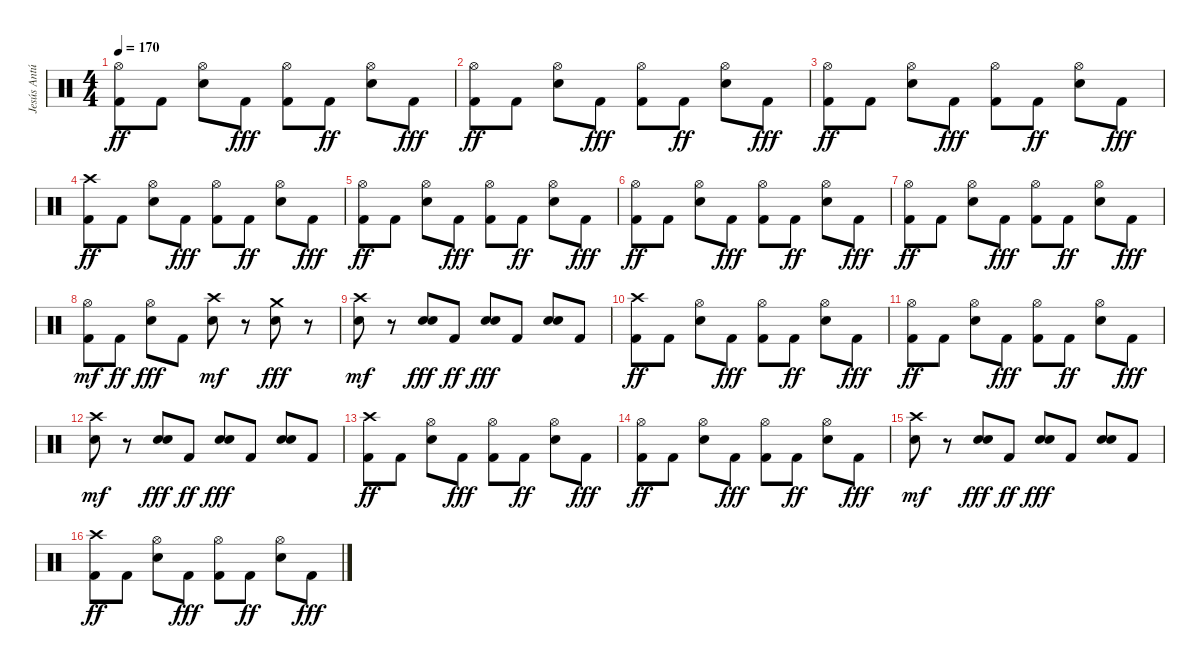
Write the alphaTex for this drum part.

\track ("Jesús Antúnez (Bateria)" "Jesús Antú") {instrument percussion}
\staff {score}
\articulation defaults
\ts (4 4)
\tempo 170
\clef neutral
\ks c
("Kick (hit) 2" "Hi-Hat (open)").8{dy ff} "Kick (hit) 2".8 ("Electric Snare (hit)" "Hi-Hat (open)").8 "Kick (hit) 2".8{dy fff} ("Kick (hit) 2" "Hi-Hat (open)").8 "Kick (hit) 2".8{dy ff} ("Electric Snare (hit)" "Hi-Hat (open)").8 "Kick (hit) 2".8{dy fff} |
("Kick (hit) 2" "Hi-Hat (open)").8{dy ff} "Kick (hit) 2".8 ("Electric Snare (hit)" "Hi-Hat (open)").8 "Kick (hit) 2".8{dy fff} ("Kick (hit) 2" "Hi-Hat (open)").8 "Kick (hit) 2".8{dy ff} ("Electric Snare (hit)" "Hi-Hat (open)").8 "Kick (hit) 2".8{dy fff} |
("Kick (hit) 2" "Hi-Hat (open)").8{dy ff} "Kick (hit) 2".8 ("Electric Snare (hit)" "Hi-Hat (open)").8 "Kick (hit) 2".8{dy fff} ("Kick (hit) 2" "Hi-Hat (open)").8 "Kick (hit) 2".8{dy ff} ("Electric Snare (hit)" "Hi-Hat (open)").8 "Kick (hit) 2".8{dy fff} |
("Kick (hit) 2" "Crash high (hit)").8{dy ff} "Kick (hit) 2".8 ("Electric Snare (hit)" "Hi-Hat (open)").8 "Kick (hit) 2".8{dy fff} ("Kick (hit) 2" "Hi-Hat (open)").8 "Kick (hit) 2".8{dy ff} ("Electric Snare (hit)" "Hi-Hat (open)").8 "Kick (hit) 2".8{dy fff} |
("Kick (hit) 2" "Hi-Hat (open)").8{dy ff} "Kick (hit) 2".8 ("Electric Snare (hit)" "Hi-Hat (open)").8 "Kick (hit) 2".8{dy fff} ("Kick (hit) 2" "Hi-Hat (open)").8 "Kick (hit) 2".8{dy ff} ("Electric Snare (hit)" "Hi-Hat (open)").8 "Kick (hit) 2".8{dy fff} |
("Kick (hit) 2" "Hi-Hat (open)").8{dy ff} "Kick (hit) 2".8 ("Electric Snare (hit)" "Hi-Hat (open)").8 "Kick (hit) 2".8{dy fff} ("Kick (hit) 2" "Hi-Hat (open)").8 "Kick (hit) 2".8{dy ff} ("Electric Snare (hit)" "Hi-Hat (open)").8 "Kick (hit) 2".8{dy fff} |
("Kick (hit) 2" "Hi-Hat (open)").8{dy ff} "Kick (hit) 2".8 ("Electric Snare (hit)" "Hi-Hat (open)").8 "Kick (hit) 2".8{dy fff} ("Kick (hit) 2" "Hi-Hat (open)").8 "Kick (hit) 2".8{dy ff} ("Electric Snare (hit)" "Hi-Hat (open)").8 "Kick (hit) 2".8{dy fff} |
("Kick (hit) 2" "Hi-Hat (open)").8{dy mf} "Kick (hit) 2".8{dy ff} ("Electric Snare (hit)" "Hi-Hat (open)").8{dy fff} "Kick (hit) 2".8 ("Electric Snare (hit)" "Crash high (hit)").8{dy mf} r.8 ("Electric Snare (hit)" "Crash medium (hit)").8{dy fff} r.8 |
("Electric Snare (hit)" "Crash high (hit)").8{dy mf} r.8 ("Electric Snare (hit)" "Electric Snare (hit)").8{dy fff} "Kick (hit) 2".8{dy ff} ("Electric Snare (hit)" "Electric Snare (hit)").8{dy fff} "Kick (hit) 2".8 ("Electric Snare (hit)" "Electric Snare (hit)").8 "Kick (hit) 2".8 |
("Kick (hit) 2" "Crash high (hit)").8{dy ff} "Kick (hit) 2".8 ("Electric Snare (hit)" "Hi-Hat (open)").8 "Kick (hit) 2".8{dy fff} ("Kick (hit) 2" "Hi-Hat (open)").8 "Kick (hit) 2".8{dy ff} ("Electric Snare (hit)" "Hi-Hat (open)").8 "Kick (hit) 2".8{dy fff} |
("Kick (hit) 2" "Hi-Hat (open)").8{dy ff} "Kick (hit) 2".8 ("Electric Snare (hit)" "Hi-Hat (open)").8 "Kick (hit) 2".8{dy fff} ("Kick (hit) 2" "Hi-Hat (open)").8 "Kick (hit) 2".8{dy ff} ("Electric Snare (hit)" "Hi-Hat (open)").8 "Kick (hit) 2".8{dy fff} |
("Electric Snare (hit)" "Crash high (hit)").8{dy mf} r.8 ("Electric Snare (hit)" "Electric Snare (hit)").8{dy fff} "Kick (hit) 2".8{dy ff} ("Electric Snare (hit)" "Electric Snare (hit)").8{dy fff} "Kick (hit) 2".8 ("Electric Snare (hit)" "Electric Snare (hit)").8 "Kick (hit) 2".8 |
("Kick (hit) 2" "Crash high (hit)").8{dy ff} "Kick (hit) 2".8 ("Electric Snare (hit)" "Hi-Hat (open)").8 "Kick (hit) 2".8{dy fff} ("Kick (hit) 2" "Hi-Hat (open)").8 "Kick (hit) 2".8{dy ff} ("Electric Snare (hit)" "Hi-Hat (open)").8 "Kick (hit) 2".8{dy fff} |
("Kick (hit) 2" "Hi-Hat (open)").8{dy ff} "Kick (hit) 2".8 ("Electric Snare (hit)" "Hi-Hat (open)").8 "Kick (hit) 2".8{dy fff} ("Kick (hit) 2" "Hi-Hat (open)").8 "Kick (hit) 2".8{dy ff} ("Electric Snare (hit)" "Hi-Hat (open)").8 "Kick (hit) 2".8{dy fff} |
("Electric Snare (hit)" "Crash high (hit)").8{dy mf} r.8 ("Electric Snare (hit)" "Electric Snare (hit)").8{dy fff} "Kick (hit) 2".8{dy ff} ("Electric Snare (hit)" "Electric Snare (hit)").8{dy fff} "Kick (hit) 2".8 ("Electric Snare (hit)" "Electric Snare (hit)").8 "Kick (hit) 2".8 |
("Kick (hit) 2" "Crash high (hit)").8{dy ff} "Kick (hit) 2".8 ("Electric Snare (hit)" "Hi-Hat (open)").8 "Kick (hit) 2".8{dy fff} ("Kick (hit) 2" "Hi-Hat (open)").8 "Kick (hit) 2".8{dy ff} ("Electric Snare (hit)" "Hi-Hat (open)").8 "Kick (hit) 2".8{dy fff}
